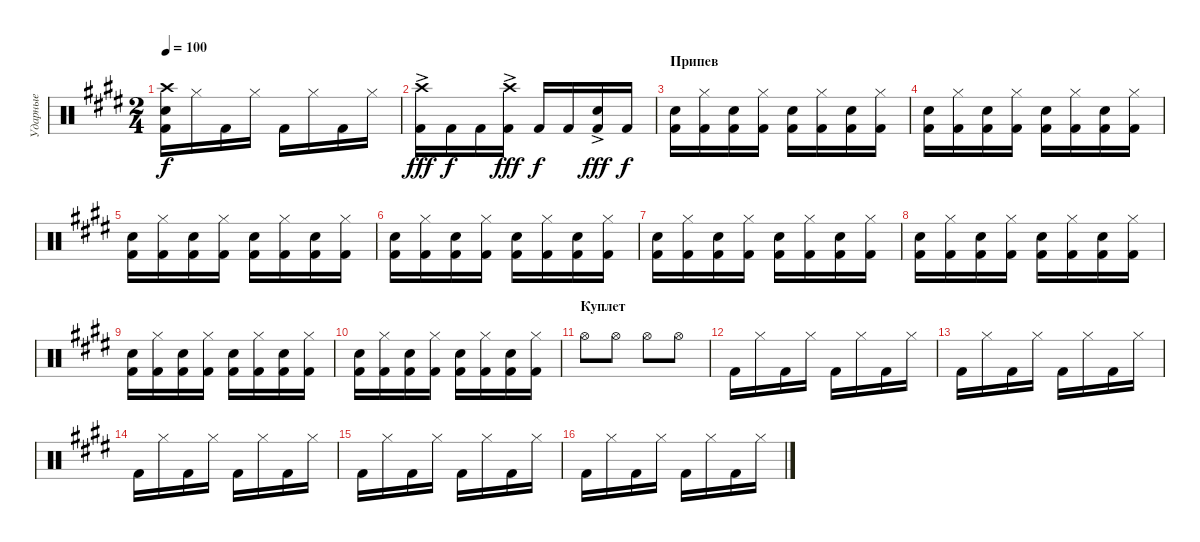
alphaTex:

\track ("Ударные" "Ударные") {instrument percussion}
\staff {score}
\articulation defaults
\ts (2 4)
\tempo 100
\clef neutral
\ks c#minor
("Crash high (hit)" "Snare (hit) 2" "Kick (hit) 2").16{dy f} "Hi-Hat (closed)".16 "Kick (hit) 2".16 "Hi-Hat (closed)".16 "Kick (hit) 2".16 "Hi-Hat (closed)".16 "Kick (hit) 2".16 "Hi-Hat (closed)".16 |
("Crash high (hit)"{ac} "Kick (hit) 2").16{dy fff} "Kick (hit) 2".16{dy f} "Kick (hit) 2".16 ("Crash high (hit)"{ac} "Kick (hit) 2").16{dy fff} "Kick (hit) 2".16{dy f} "Kick (hit) 2".16 ("Snare (hit) 2"{ac} "Kick (hit) 2").16{dy fff} "Kick (hit) 2".16{dy f} |
\section ("" "Припев")
("Snare (hit) 2" "Kick (hit) 2").16 ("Hi-Hat (closed)" "Kick (hit) 2").16 ("Snare (hit) 2" "Kick (hit) 2").16 ("Hi-Hat (closed)" "Kick (hit) 2").16 ("Snare (hit) 2" "Kick (hit) 2").16 ("Hi-Hat (closed)" "Kick (hit) 2").16 ("Snare (hit) 2" "Kick (hit) 2").16 ("Hi-Hat (closed)" "Kick (hit) 2").16 |
("Snare (hit) 2" "Kick (hit) 2").16 ("Hi-Hat (closed)" "Kick (hit) 2").16 ("Snare (hit) 2" "Kick (hit) 2").16 ("Hi-Hat (closed)" "Kick (hit) 2").16 ("Snare (hit) 2" "Kick (hit) 2").16 ("Hi-Hat (closed)" "Kick (hit) 2").16 ("Snare (hit) 2" "Kick (hit) 2").16 ("Hi-Hat (closed)" "Kick (hit) 2").16 |
("Snare (hit) 2" "Kick (hit) 2").16 ("Hi-Hat (closed)" "Kick (hit) 2").16 ("Snare (hit) 2" "Kick (hit) 2").16 ("Hi-Hat (closed)" "Kick (hit) 2").16 ("Snare (hit) 2" "Kick (hit) 2").16 ("Hi-Hat (closed)" "Kick (hit) 2").16 ("Snare (hit) 2" "Kick (hit) 2").16 ("Hi-Hat (closed)" "Kick (hit) 2").16 |
("Snare (hit) 2" "Kick (hit) 2").16 ("Hi-Hat (closed)" "Kick (hit) 2").16 ("Snare (hit) 2" "Kick (hit) 2").16 ("Hi-Hat (closed)" "Kick (hit) 2").16 ("Snare (hit) 2" "Kick (hit) 2").16 ("Hi-Hat (closed)" "Kick (hit) 2").16 ("Snare (hit) 2" "Kick (hit) 2").16 ("Hi-Hat (closed)" "Kick (hit) 2").16 |
("Snare (hit) 2" "Kick (hit) 2").16 ("Hi-Hat (closed)" "Kick (hit) 2").16 ("Snare (hit) 2" "Kick (hit) 2").16 ("Hi-Hat (closed)" "Kick (hit) 2").16 ("Snare (hit) 2" "Kick (hit) 2").16 ("Hi-Hat (closed)" "Kick (hit) 2").16 ("Snare (hit) 2" "Kick (hit) 2").16 ("Hi-Hat (closed)" "Kick (hit) 2").16 |
("Snare (hit) 2" "Kick (hit) 2").16 ("Hi-Hat (closed)" "Kick (hit) 2").16 ("Snare (hit) 2" "Kick (hit) 2").16 ("Hi-Hat (closed)" "Kick (hit) 2").16 ("Snare (hit) 2" "Kick (hit) 2").16 ("Hi-Hat (closed)" "Kick (hit) 2").16 ("Snare (hit) 2" "Kick (hit) 2").16 ("Hi-Hat (closed)" "Kick (hit) 2").16 |
("Snare (hit) 2" "Kick (hit) 2").16 ("Hi-Hat (closed)" "Kick (hit) 2").16 ("Snare (hit) 2" "Kick (hit) 2").16 ("Hi-Hat (closed)" "Kick (hit) 2").16 ("Snare (hit) 2" "Kick (hit) 2").16 ("Hi-Hat (closed)" "Kick (hit) 2").16 ("Snare (hit) 2" "Kick (hit) 2").16 ("Hi-Hat (closed)" "Kick (hit) 2").16 |
("Snare (hit) 2" "Kick (hit) 2").16 ("Hi-Hat (closed)" "Kick (hit) 2").16 ("Snare (hit) 2" "Kick (hit) 2").16 ("Hi-Hat (closed)" "Kick (hit) 2").16 ("Snare (hit) 2" "Kick (hit) 2").16 ("Hi-Hat (closed)" "Kick (hit) 2").16 ("Snare (hit) 2" "Kick (hit) 2").16 ("Hi-Hat (closed)" "Kick (hit) 2").16 |
\section ("" "Куплет")
"Hi-Hat (open)".8 "Hi-Hat (open)".8 "Hi-Hat (open)".8 "Hi-Hat (open)".8 |
"Kick (hit) 2".16 "Hi-Hat (closed)".16 "Kick (hit) 2".16 "Hi-Hat (closed)".16 "Kick (hit) 2".16 "Hi-Hat (closed)".16 "Kick (hit) 2".16 "Hi-Hat (closed)".16 |
"Kick (hit) 2".16 "Hi-Hat (closed)".16 "Kick (hit) 2".16 "Hi-Hat (closed)".16 "Kick (hit) 2".16 "Hi-Hat (closed)".16 "Kick (hit) 2".16 "Hi-Hat (closed)".16 |
"Kick (hit) 2".16 "Hi-Hat (closed)".16 "Kick (hit) 2".16 "Hi-Hat (closed)".16 "Kick (hit) 2".16 "Hi-Hat (closed)".16 "Kick (hit) 2".16 "Hi-Hat (closed)".16 |
"Kick (hit) 2".16 "Hi-Hat (closed)".16 "Kick (hit) 2".16 "Hi-Hat (closed)".16 "Kick (hit) 2".16 "Hi-Hat (closed)".16 "Kick (hit) 2".16 "Hi-Hat (closed)".16 |
"Kick (hit) 2".16 "Hi-Hat (closed)".16 "Kick (hit) 2".16 "Hi-Hat (closed)".16 "Kick (hit) 2".16 "Hi-Hat (closed)".16 "Kick (hit) 2".16 "Hi-Hat (closed)".16
